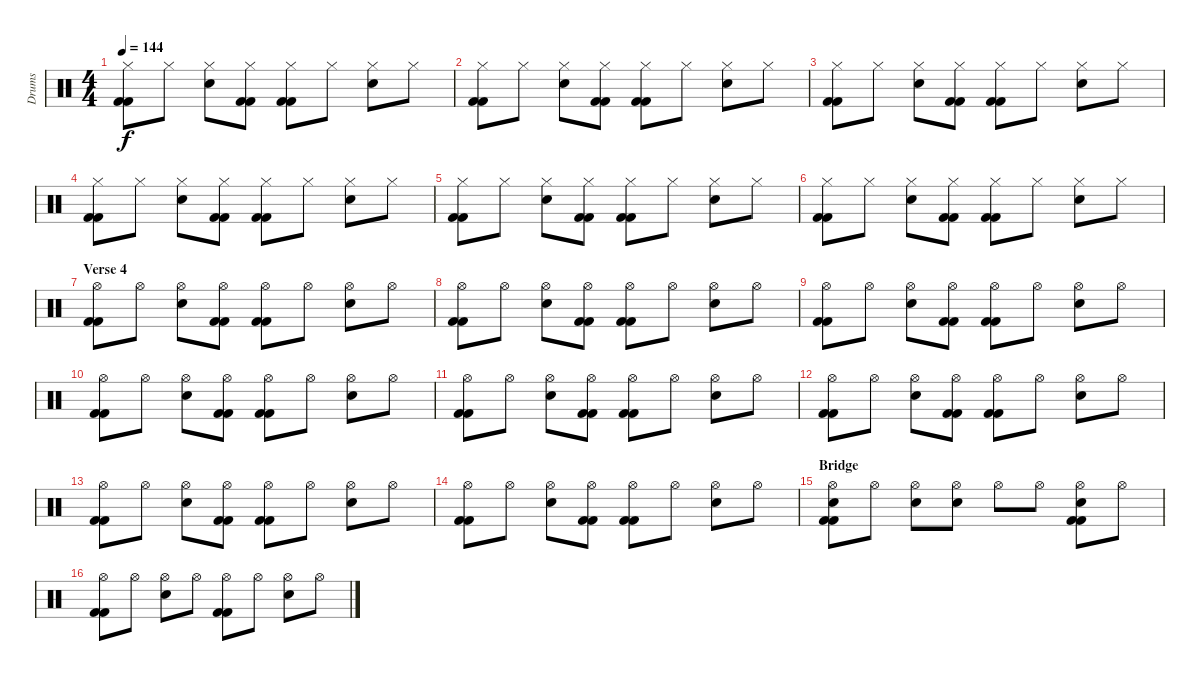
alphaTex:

\track ("Drums" "Drums") {instrument percussion}
\staff {score}
\articulation defaults
\ts (4 4)
\tempo 144
\clef neutral
\ks c
("Kick (hit) 2" "Kick (hit) 2" "Hi-Hat (closed)").8{dy f} "Hi-Hat (closed)".8 ("Snare (hit) 2" "Hi-Hat (closed)").8 ("Kick (hit) 2" "Kick (hit) 2" "Hi-Hat (closed)").8 ("Kick (hit) 2" "Kick (hit) 2" "Hi-Hat (closed)").8 "Hi-Hat (closed)".8 ("Snare (hit) 2" "Hi-Hat (closed)").8 "Hi-Hat (closed)".8 |
("Kick (hit) 2" "Kick (hit) 2" "Hi-Hat (closed)").8 "Hi-Hat (closed)".8 ("Snare (hit) 2" "Hi-Hat (closed)").8 ("Kick (hit) 2" "Kick (hit) 2" "Hi-Hat (closed)").8 ("Kick (hit) 2" "Kick (hit) 2" "Hi-Hat (closed)").8 "Hi-Hat (closed)".8 ("Snare (hit) 2" "Hi-Hat (closed)").8 "Hi-Hat (closed)".8 |
("Kick (hit) 2" "Kick (hit) 2" "Hi-Hat (closed)").8 "Hi-Hat (closed)".8 ("Snare (hit) 2" "Hi-Hat (closed)").8 ("Kick (hit) 2" "Kick (hit) 2" "Hi-Hat (closed)").8 ("Kick (hit) 2" "Kick (hit) 2" "Hi-Hat (closed)").8 "Hi-Hat (closed)".8 ("Snare (hit) 2" "Hi-Hat (closed)").8 "Hi-Hat (closed)".8 |
("Kick (hit) 2" "Kick (hit) 2" "Hi-Hat (closed)").8 "Hi-Hat (closed)".8 ("Snare (hit) 2" "Hi-Hat (closed)").8 ("Kick (hit) 2" "Kick (hit) 2" "Hi-Hat (closed)").8 ("Kick (hit) 2" "Kick (hit) 2" "Hi-Hat (closed)").8 "Hi-Hat (closed)".8 ("Snare (hit) 2" "Hi-Hat (closed)").8 "Hi-Hat (closed)".8 |
("Kick (hit) 2" "Kick (hit) 2" "Hi-Hat (closed)").8 "Hi-Hat (closed)".8 ("Snare (hit) 2" "Hi-Hat (closed)").8 ("Kick (hit) 2" "Kick (hit) 2" "Hi-Hat (closed)").8 ("Kick (hit) 2" "Kick (hit) 2" "Hi-Hat (closed)").8 "Hi-Hat (closed)".8 ("Snare (hit) 2" "Hi-Hat (closed)").8 "Hi-Hat (closed)".8 |
("Kick (hit) 2" "Kick (hit) 2" "Hi-Hat (closed)").8 "Hi-Hat (closed)".8 ("Snare (hit) 2" "Hi-Hat (closed)").8 ("Kick (hit) 2" "Kick (hit) 2" "Hi-Hat (closed)").8 ("Kick (hit) 2" "Kick (hit) 2" "Hi-Hat (closed)").8 "Hi-Hat (closed)".8 ("Snare (hit) 2" "Hi-Hat (closed)").8 "Hi-Hat (closed)".8 |
\section ("" "Verse 4")
("Kick (hit) 2" "Kick (hit) 2" "Hi-Hat (open)").8 "Hi-Hat (open)".8 ("Snare (hit) 2" "Hi-Hat (open)").8 ("Kick (hit) 2" "Kick (hit) 2" "Hi-Hat (open)").8 ("Kick (hit) 2" "Kick (hit) 2" "Hi-Hat (open)").8 "Hi-Hat (open)".8 ("Snare (hit) 2" "Hi-Hat (open)").8 "Hi-Hat (open)".8 |
("Kick (hit) 2" "Kick (hit) 2" "Hi-Hat (open)").8 "Hi-Hat (open)".8 ("Snare (hit) 2" "Hi-Hat (open)").8 ("Kick (hit) 2" "Kick (hit) 2" "Hi-Hat (open)").8 ("Kick (hit) 2" "Kick (hit) 2" "Hi-Hat (open)").8 "Hi-Hat (open)".8 ("Snare (hit) 2" "Hi-Hat (open)").8 "Hi-Hat (open)".8 |
("Kick (hit) 2" "Kick (hit) 2" "Hi-Hat (open)").8 "Hi-Hat (open)".8 ("Snare (hit) 2" "Hi-Hat (open)").8 ("Kick (hit) 2" "Kick (hit) 2" "Hi-Hat (open)").8 ("Kick (hit) 2" "Kick (hit) 2" "Hi-Hat (open)").8 "Hi-Hat (open)".8 ("Snare (hit) 2" "Hi-Hat (open)").8 "Hi-Hat (open)".8 |
("Kick (hit) 2" "Kick (hit) 2" "Hi-Hat (open)").8 "Hi-Hat (open)".8 ("Snare (hit) 2" "Hi-Hat (open)").8 ("Kick (hit) 2" "Kick (hit) 2" "Hi-Hat (open)").8 ("Kick (hit) 2" "Kick (hit) 2" "Hi-Hat (open)").8 "Hi-Hat (open)".8 ("Snare (hit) 2" "Hi-Hat (open)").8 "Hi-Hat (open)".8 |
("Kick (hit) 2" "Kick (hit) 2" "Hi-Hat (open)").8 "Hi-Hat (open)".8 ("Snare (hit) 2" "Hi-Hat (open)").8 ("Kick (hit) 2" "Kick (hit) 2" "Hi-Hat (open)").8 ("Kick (hit) 2" "Kick (hit) 2" "Hi-Hat (open)").8 "Hi-Hat (open)".8 ("Snare (hit) 2" "Hi-Hat (open)").8 "Hi-Hat (open)".8 |
("Kick (hit) 2" "Kick (hit) 2" "Hi-Hat (open)").8 "Hi-Hat (open)".8 ("Snare (hit) 2" "Hi-Hat (open)").8 ("Kick (hit) 2" "Kick (hit) 2" "Hi-Hat (open)").8 ("Kick (hit) 2" "Kick (hit) 2" "Hi-Hat (open)").8 "Hi-Hat (open)".8 ("Snare (hit) 2" "Hi-Hat (open)").8 "Hi-Hat (open)".8 |
("Kick (hit) 2" "Kick (hit) 2" "Hi-Hat (open)").8 "Hi-Hat (open)".8 ("Snare (hit) 2" "Hi-Hat (open)").8 ("Kick (hit) 2" "Kick (hit) 2" "Hi-Hat (open)").8 ("Kick (hit) 2" "Kick (hit) 2" "Hi-Hat (open)").8 "Hi-Hat (open)".8 ("Snare (hit) 2" "Hi-Hat (open)").8 "Hi-Hat (open)".8 |
("Kick (hit) 2" "Kick (hit) 2" "Hi-Hat (open)").8 "Hi-Hat (open)".8 ("Snare (hit) 2" "Hi-Hat (open)").8 ("Kick (hit) 2" "Kick (hit) 2" "Hi-Hat (open)").8 ("Kick (hit) 2" "Kick (hit) 2" "Hi-Hat (open)").8 "Hi-Hat (open)".8 ("Snare (hit) 2" "Hi-Hat (open)").8 "Hi-Hat (open)".8 |
\section ("" "Bridge")
("Kick (hit) 2" "Kick (hit) 2" "Snare (hit) 2" "Hi-Hat (open)").8 "Hi-Hat (open)".8 ("Snare (hit) 2" "Hi-Hat (open)").8 ("Snare (hit) 2" "Hi-Hat (open)").8 "Hi-Hat (open)".8 "Hi-Hat (open)".8 ("Kick (hit) 2" "Kick (hit) 2" "Snare (hit) 2" "Hi-Hat (open)").8 "Hi-Hat (open)".8 |
("Kick (hit) 2" "Kick (hit) 2" "Hi-Hat (open)").8 "Hi-Hat (open)".8 ("Snare (hit) 2" "Hi-Hat (open)").8 "Hi-Hat (open)".8 ("Kick (hit) 2" "Kick (hit) 2" "Hi-Hat (open)").8 "Hi-Hat (open)".8 ("Snare (hit) 2" "Hi-Hat (open)").8 "Hi-Hat (open)".8
